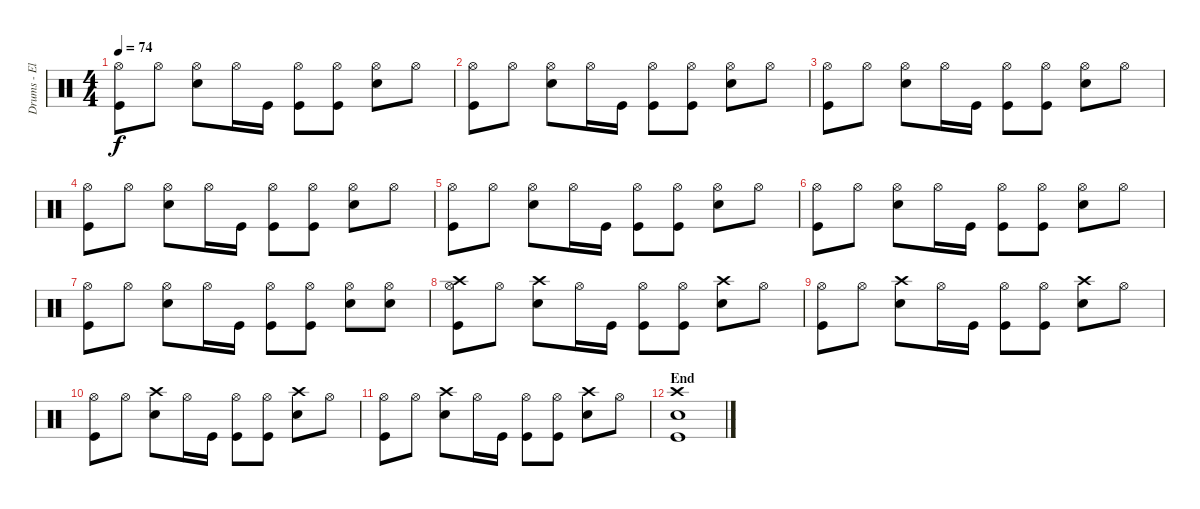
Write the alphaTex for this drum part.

\track ("Drums - Electronic Kit then Real Drums!!" "Drums - El") {instrument percussion}
\staff {score}
\articulation defaults
\ts (4 4)
\tempo 74
\clef neutral
\ks c
("Hi-Hat (open)" "Kick (hit)").8{dy f} "Hi-Hat (open)".8 ("Hi-Hat (open)" "Snare (hit) 2").8 "Hi-Hat (open)".16 "Kick (hit)".16 ("Hi-Hat (open)" "Kick (hit)").8 ("Hi-Hat (open)" "Kick (hit)").8 ("Hi-Hat (open)" "Snare (hit) 2").8 "Hi-Hat (open)".8 |
("Hi-Hat (open)" "Kick (hit)").8 "Hi-Hat (open)".8 ("Hi-Hat (open)" "Snare (hit) 2").8 "Hi-Hat (open)".16 "Kick (hit)".16 ("Hi-Hat (open)" "Kick (hit)").8 ("Hi-Hat (open)" "Kick (hit)").8 ("Hi-Hat (open)" "Snare (hit) 2").8 "Hi-Hat (open)".8 |
("Hi-Hat (open)" "Kick (hit)").8 "Hi-Hat (open)".8 ("Hi-Hat (open)" "Snare (hit) 2").8 "Hi-Hat (open)".16 "Kick (hit)".16 ("Hi-Hat (open)" "Kick (hit)").8 ("Hi-Hat (open)" "Kick (hit)").8 ("Hi-Hat (open)" "Snare (hit) 2").8 "Hi-Hat (open)".8 |
("Hi-Hat (open)" "Kick (hit)").8 "Hi-Hat (open)".8 ("Hi-Hat (open)" "Snare (hit) 2").8 "Hi-Hat (open)".16 "Kick (hit)".16 ("Hi-Hat (open)" "Kick (hit)").8 ("Hi-Hat (open)" "Kick (hit)").8 ("Hi-Hat (open)" "Snare (hit) 2").8 "Hi-Hat (open)".8 |
("Hi-Hat (open)" "Kick (hit)").8 "Hi-Hat (open)".8 ("Hi-Hat (open)" "Snare (hit) 2").8 "Hi-Hat (open)".16 "Kick (hit)".16 ("Hi-Hat (open)" "Kick (hit)").8 ("Hi-Hat (open)" "Kick (hit)").8 ("Hi-Hat (open)" "Snare (hit) 2").8 "Hi-Hat (open)".8 |
("Hi-Hat (open)" "Kick (hit)").8 "Hi-Hat (open)".8 ("Hi-Hat (open)" "Snare (hit) 2").8 "Hi-Hat (open)".16 "Kick (hit)".16 ("Hi-Hat (open)" "Kick (hit)").8 ("Hi-Hat (open)" "Kick (hit)").8 ("Hi-Hat (open)" "Snare (hit) 2").8 "Hi-Hat (open)".8 |
("Hi-Hat (open)" "Kick (hit)").8 "Hi-Hat (open)".8 ("Hi-Hat (open)" "Snare (hit) 2").8 "Hi-Hat (open)".16 "Kick (hit)".16 ("Hi-Hat (open)" "Kick (hit)").8 ("Hi-Hat (open)" "Kick (hit)").8 ("Hi-Hat (open)" "Snare (hit) 2").8 ("Hi-Hat (open)" "Snare (hit) 2").8 |
("Hi-Hat (open)" "Crash high (hit)" "Kick (hit)").8 "Hi-Hat (open)".8 ("Crash high (hit)" "Snare (hit) 2").8 "Hi-Hat (open)".16 "Kick (hit)".16 ("Hi-Hat (open)" "Kick (hit)").8 ("Hi-Hat (open)" "Kick (hit)").8 ("Crash high (hit)" "Snare (hit) 2").8 "Hi-Hat (open)".8 |
("Hi-Hat (open)" "Kick (hit)").8 "Hi-Hat (open)".8 ("Crash high (hit)" "Snare (hit) 2").8 "Hi-Hat (open)".16 "Kick (hit)".16 ("Hi-Hat (open)" "Kick (hit)").8 ("Hi-Hat (open)" "Kick (hit)").8 ("Crash high (hit)" "Snare (hit) 2").8 "Hi-Hat (open)".8 |
("Hi-Hat (open)" "Kick (hit)").8 "Hi-Hat (open)".8 ("Crash high (hit)" "Snare (hit) 2").8 "Hi-Hat (open)".16 "Kick (hit)".16 ("Hi-Hat (open)" "Kick (hit)").8 ("Hi-Hat (open)" "Kick (hit)").8 ("Crash high (hit)" "Snare (hit) 2").8 "Hi-Hat (open)".8 |
("Hi-Hat (open)" "Kick (hit)").8 "Hi-Hat (open)".8 ("Crash high (hit)" "Snare (hit) 2").8 "Hi-Hat (open)".16 "Kick (hit)".16 ("Hi-Hat (open)" "Kick (hit)").8 ("Hi-Hat (open)" "Kick (hit)").8 ("Crash high (hit)" "Snare (hit) 2").8 "Hi-Hat (open)".8 |
\section ("" "End")
("Crash high (hit)" "Snare (hit) 2" "Kick (hit)").1
